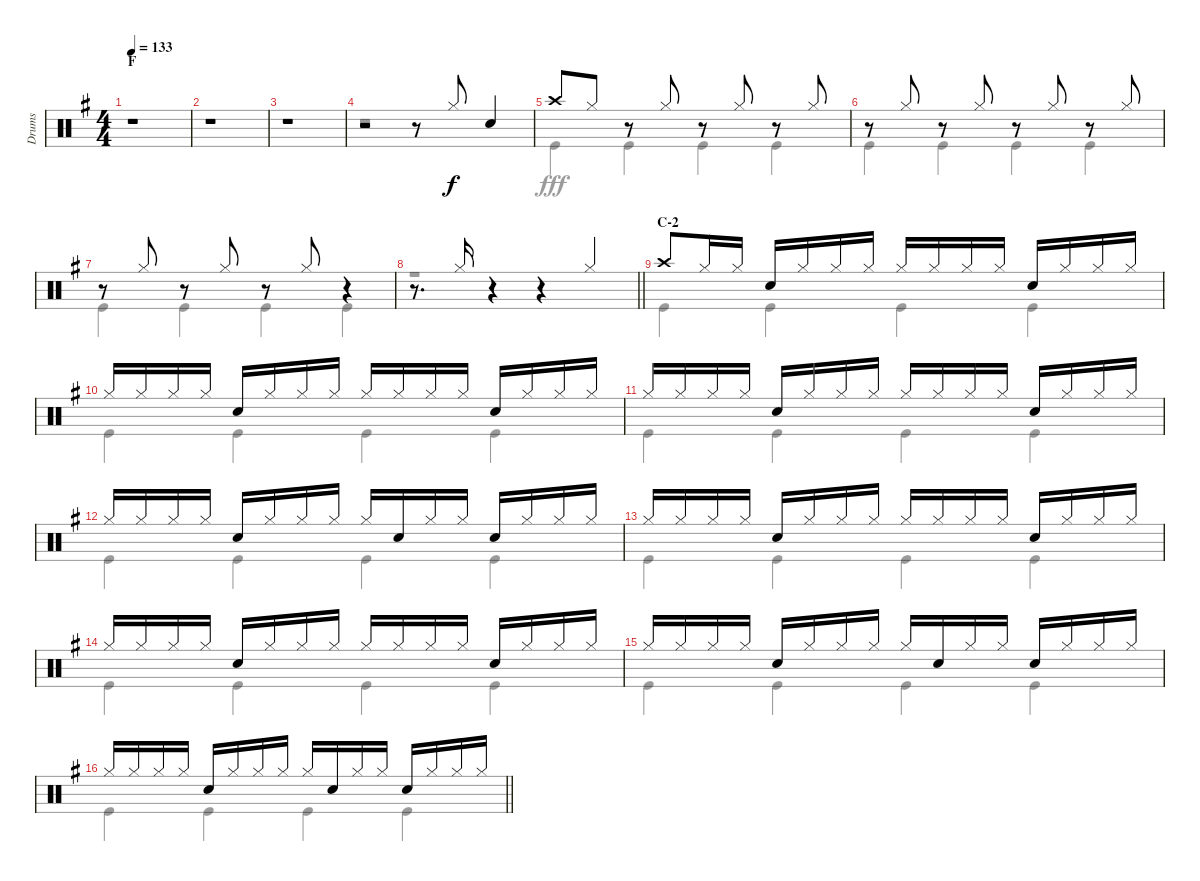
\track ("Drums" "Drums") {instrument percussion}
\staff {score}
\articulation defaults
\voice
\ts (4 4)
\section ("" "F")
\tempo 133
\clef neutral
\ks g
r.1{dy f} |
r.1 |
r.1 |
r.2 r.8 "Hi-Hat (closed)".8 "Snare (hit) 2".4 |
"Crash high (hit)".8 "Hi-Hat (closed)".8 r.8 "Hi-Hat (closed)".8 r.8 "Hi-Hat (closed)".8 r.8 "Hi-Hat (closed)".8 |
r.8 "Hi-Hat (closed)".8 r.8 "Hi-Hat (closed)".8 r.8 "Hi-Hat (closed)".8 r.8 "Hi-Hat (closed)".8 |
r.8 "Hi-Hat (closed)".8 r.8 "Hi-Hat (closed)".8 r.8 "Hi-Hat (closed)".8 r.4 |
\barLineRight lightlight
r.8{d} "Hi-Hat (closed)".16 r.4 r.4 "Hi-Hat (closed)".4 |
\section ("" "C-2")
"Crash high (hit)".8 "Hi-Hat (closed)".16 "Hi-Hat (closed)".16 "Snare (hit) 2".16 "Hi-Hat (closed)".16 "Hi-Hat (closed)".16 "Hi-Hat (closed)".16 "Hi-Hat (closed)".16 "Hi-Hat (closed)".16 "Hi-Hat (closed)".16 "Hi-Hat (closed)".16 "Snare (hit) 2".16 "Hi-Hat (closed)".16 "Hi-Hat (closed)".16 "Hi-Hat (closed)".16 |
"Hi-Hat (closed)".16 "Hi-Hat (closed)".16 "Hi-Hat (closed)".16 "Hi-Hat (closed)".16 "Snare (hit) 2".16 "Hi-Hat (closed)".16 "Hi-Hat (closed)".16 "Hi-Hat (closed)".16 "Hi-Hat (closed)".16 "Hi-Hat (closed)".16 "Hi-Hat (closed)".16 "Hi-Hat (closed)".16 "Snare (hit) 2".16 "Hi-Hat (closed)".16 "Hi-Hat (closed)".16 "Hi-Hat (closed)".16 |
"Hi-Hat (closed)".16 "Hi-Hat (closed)".16 "Hi-Hat (closed)".16 "Hi-Hat (closed)".16 "Snare (hit) 2".16 "Hi-Hat (closed)".16 "Hi-Hat (closed)".16 "Hi-Hat (closed)".16 "Hi-Hat (closed)".16 "Hi-Hat (closed)".16 "Hi-Hat (closed)".16 "Hi-Hat (closed)".16 "Snare (hit) 2".16 "Hi-Hat (closed)".16 "Hi-Hat (closed)".16 "Hi-Hat (closed)".16 |
"Hi-Hat (closed)".16 "Hi-Hat (closed)".16 "Hi-Hat (closed)".16 "Hi-Hat (closed)".16 "Snare (hit) 2".16 "Hi-Hat (closed)".16 "Hi-Hat (closed)".16 "Hi-Hat (closed)".16 "Hi-Hat (closed)".16 "Snare (hit) 2".16 "Hi-Hat (closed)".16 "Hi-Hat (closed)".16 "Snare (hit) 2".16 "Hi-Hat (closed)".16 "Hi-Hat (closed)".16 "Hi-Hat (closed)".16 |
"Hi-Hat (closed)".16 "Hi-Hat (closed)".16 "Hi-Hat (closed)".16 "Hi-Hat (closed)".16 "Snare (hit) 2".16 "Hi-Hat (closed)".16 "Hi-Hat (closed)".16 "Hi-Hat (closed)".16 "Hi-Hat (closed)".16 "Hi-Hat (closed)".16 "Hi-Hat (closed)".16 "Hi-Hat (closed)".16 "Snare (hit) 2".16 "Hi-Hat (closed)".16 "Hi-Hat (closed)".16 "Hi-Hat (closed)".16 |
"Hi-Hat (closed)".16 "Hi-Hat (closed)".16 "Hi-Hat (closed)".16 "Hi-Hat (closed)".16 "Snare (hit) 2".16 "Hi-Hat (closed)".16 "Hi-Hat (closed)".16 "Hi-Hat (closed)".16 "Hi-Hat (closed)".16 "Hi-Hat (closed)".16 "Hi-Hat (closed)".16 "Hi-Hat (closed)".16 "Snare (hit) 2".16 "Hi-Hat (closed)".16 "Hi-Hat (closed)".16 "Hi-Hat (closed)".16 |
"Hi-Hat (closed)".16 "Hi-Hat (closed)".16 "Hi-Hat (closed)".16 "Hi-Hat (closed)".16 "Snare (hit) 2".16 "Hi-Hat (closed)".16 "Hi-Hat (closed)".16 "Hi-Hat (closed)".16 "Hi-Hat (closed)".16 "Snare (hit) 2".16 "Hi-Hat (closed)".16 "Hi-Hat (closed)".16 "Snare (hit) 2".16 "Hi-Hat (closed)".16 "Hi-Hat (closed)".16 "Hi-Hat (closed)".16 |
\barLineRight lightlight "Hi-Hat (closed)".16 "Hi-Hat (closed)".16 "Hi-Hat (closed)".16 "Hi-Hat (closed)".16 "Snare (hit) 2".16 "Hi-Hat (closed)".16 "Hi-Hat (closed)".16 "Hi-Hat (closed)".16 "Hi-Hat (closed)".16 "Snare (hit) 2".16 "Hi-Hat (closed)".16 "Hi-Hat (closed)".16 "Snare (hit) 2".16 "Hi-Hat (closed)".16 "Hi-Hat (closed)".16 "Hi-Hat (closed)".16
\voice
\clef neutral
\ottava regular
\simile none
\ks g
r.1{dy fff} |
r.1 |
r.1 |
r.1 |
"Kick (hit)".4 "Kick (hit)".4 "Kick (hit)".4 "Kick (hit)".4 |
"Kick (hit)".4 "Kick (hit)".4 "Kick (hit)".4 "Kick (hit)".4 |
"Kick (hit)".4 "Kick (hit)".4 "Kick (hit)".4 "Kick (hit)".4 |
\barLineRight lightlight
r.1 |
"Kick (hit)".4 "Kick (hit)".4 "Kick (hit)".4 "Kick (hit)".4 |
"Kick (hit)".4 "Kick (hit)".4 "Kick (hit)".4 "Kick (hit)".4 |
"Kick (hit)".4 "Kick (hit)".4 "Kick (hit)".4 "Kick (hit)".4 |
"Kick (hit)".4 "Kick (hit)".4 "Kick (hit)".4 "Kick (hit)".4 |
"Kick (hit)".4 "Kick (hit)".4 "Kick (hit)".4 "Kick (hit)".4 |
"Kick (hit)".4 "Kick (hit)".4 "Kick (hit)".4 "Kick (hit)".4 |
"Kick (hit)".4 "Kick (hit)".4 "Kick (hit)".4 "Kick (hit)".4 |
\barLineRight lightlight "Kick (hit)".4 "Kick (hit)".4 "Kick (hit)".4 "Kick (hit)".4
